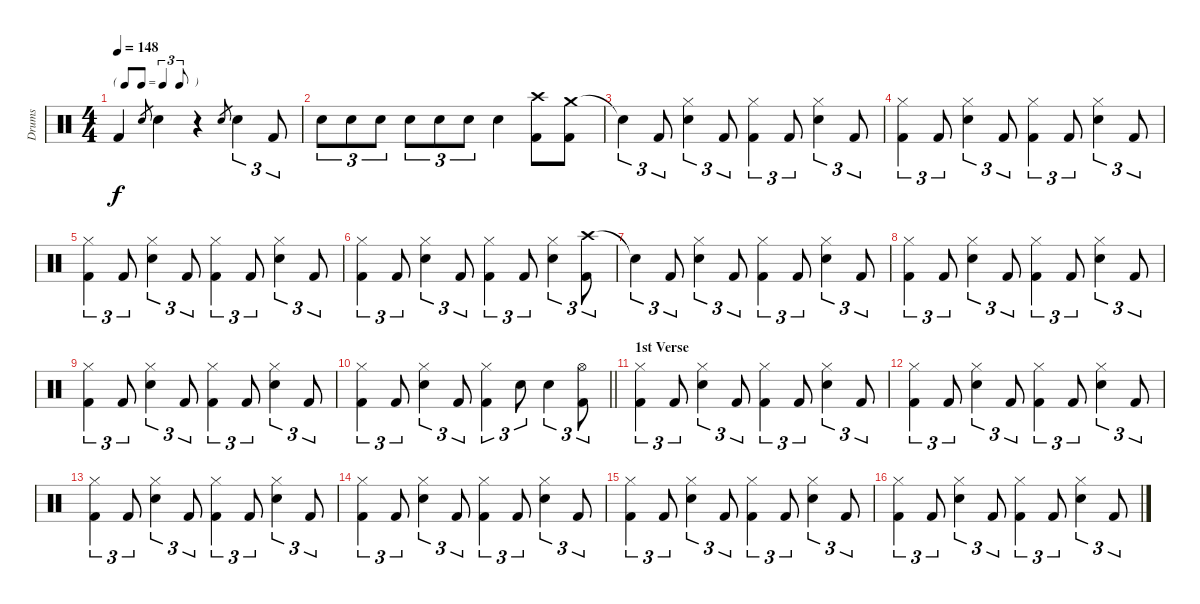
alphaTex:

\track ("Drums" "Drums") {instrument percussion}
\staff {score}
\articulation defaults
\ts (4 4)
\tf triplet8th
\tempo 148
\clef neutral
\ks c "Kick (hit) 2".4{dy f} "Snare (hit) 2".8{gr} "Snare (hit) 2".4
r.4 "Snare (hit) 2".8{gr} "Snare (hit) 2".4{tu (3 2)} "Kick (hit) 2".8{tu (3 2)} |
"Snare (hit) 2".8{tu (3 2)} "Snare (hit) 2".8{tu (3 2)} "Snare (hit) 2".8{tu (3 2)} "Snare (hit) 2".8{tu (3 2)} "Snare (hit) 2".8{tu (3 2)} "Snare (hit) 2".8{tu (3 2)} "Snare (hit) 2".4 ("Crash high (hit)" "Kick (hit) 2").8 ("Crash medium (hit)" "Kick (hit) 2").8 |
"Snare (hit)"{t}.4{tu (3 2)} "Kick (hit) 2".8{tu (3 2)} ("Hi-Hat (closed)" "Snare (hit) 2").4{tu (3 2)} "Kick (hit) 2".8{tu (3 2)} ("Hi-Hat (closed)" "Kick (hit) 2").4{tu (3 2)} "Kick (hit) 2".8{tu (3 2)} ("Hi-Hat (closed)" "Snare (hit) 2").4{tu (3 2)} "Kick (hit) 2".8{tu (3 2)} |
("Hi-Hat (closed)" "Kick (hit) 2").4{tu (3 2)} "Kick (hit) 2".8{tu (3 2)} ("Hi-Hat (closed)" "Snare (hit) 2").4{tu (3 2)} "Kick (hit) 2".8{tu (3 2)} ("Hi-Hat (closed)" "Kick (hit) 2").4{tu (3 2)} "Kick (hit) 2".8{tu (3 2)} ("Hi-Hat (closed)" "Snare (hit) 2").4{tu (3 2)} "Kick (hit) 2".8{tu (3 2)} |
("Hi-Hat (closed)" "Kick (hit) 2").4{tu (3 2)} "Kick (hit) 2".8{tu (3 2)} ("Hi-Hat (closed)" "Snare (hit) 2").4{tu (3 2)} "Kick (hit) 2".8{tu (3 2)} ("Hi-Hat (closed)" "Kick (hit) 2").4{tu (3 2)} "Kick (hit) 2".8{tu (3 2)} ("Hi-Hat (closed)" "Snare (hit) 2").4{tu (3 2)} "Kick (hit) 2".8{tu (3 2)} |
("Hi-Hat (closed)" "Kick (hit) 2").4{tu (3 2)} "Kick (hit) 2".8{tu (3 2)} ("Hi-Hat (closed)" "Snare (hit) 2").4{tu (3 2)} "Kick (hit) 2".8{tu (3 2)} ("Hi-Hat (closed)" "Kick (hit) 2").4{tu (3 2)} "Kick (hit) 2".8{tu (3 2)} ("Hi-Hat (closed)" "Snare (hit) 2").4{tu (3 2)} ("Crash high (hit)" "Kick (hit) 2").8{tu (3 2)} |
"Snare (hit)"{t}.4{tu (3 2)} "Kick (hit) 2".8{tu (3 2)} ("Hi-Hat (closed)" "Snare (hit) 2").4{tu (3 2)} "Kick (hit) 2".8{tu (3 2)} ("Hi-Hat (closed)" "Kick (hit) 2").4{tu (3 2)} "Kick (hit) 2".8{tu (3 2)} ("Hi-Hat (closed)" "Snare (hit) 2").4{tu (3 2)} "Kick (hit) 2".8{tu (3 2)} |
("Hi-Hat (closed)" "Kick (hit) 2").4{tu (3 2)} "Kick (hit) 2".8{tu (3 2)} ("Hi-Hat (closed)" "Snare (hit) 2").4{tu (3 2)} "Kick (hit) 2".8{tu (3 2)} ("Hi-Hat (closed)" "Kick (hit) 2").4{tu (3 2)} "Kick (hit) 2".8{tu (3 2)} ("Hi-Hat (closed)" "Snare (hit) 2").4{tu (3 2)} "Kick (hit) 2".8{tu (3 2)} |
("Hi-Hat (closed)" "Kick (hit) 2").4{tu (3 2)} "Kick (hit) 2".8{tu (3 2)} ("Hi-Hat (closed)" "Snare (hit) 2").4{tu (3 2)} "Kick (hit) 2".8{tu (3 2)} ("Hi-Hat (closed)" "Kick (hit) 2").4{tu (3 2)} "Kick (hit) 2".8{tu (3 2)} ("Hi-Hat (closed)" "Snare (hit) 2").4{tu (3 2)} "Kick (hit) 2".8{tu (3 2)} |
\barLineRight lightlight
("Hi-Hat (closed)" "Kick (hit) 2").4{tu (3 2)} "Kick (hit) 2".8{tu (3 2)} ("Hi-Hat (closed)" "Snare (hit) 2").4{tu (3 2)} "Kick (hit) 2".8{tu (3 2)} ("Hi-Hat (closed)" "Kick (hit) 2").4{tu (3 2)} "Snare (hit) 2".8{tu (3 2)} "Snare (hit) 2".4{tu (3 2)} ("Hi-Hat (open)" "Kick (hit) 2").8{tu (3 2)} |
\section ("" "1st Verse")
("Hi-Hat (closed)" "Kick (hit) 2").4{tu (3 2)} "Kick (hit) 2".8{tu (3 2)} ("Hi-Hat (closed)" "Snare (hit) 2").4{tu (3 2)} "Kick (hit) 2".8{tu (3 2)} ("Hi-Hat (closed)" "Kick (hit) 2").4{tu (3 2)} "Kick (hit) 2".8{tu (3 2)} ("Hi-Hat (closed)" "Snare (hit) 2").4{tu (3 2)} "Kick (hit) 2".8{tu (3 2)} |
("Hi-Hat (closed)" "Kick (hit) 2").4{tu (3 2)} "Kick (hit) 2".8{tu (3 2)} ("Hi-Hat (closed)" "Snare (hit) 2").4{tu (3 2)} "Kick (hit) 2".8{tu (3 2)} ("Hi-Hat (closed)" "Kick (hit) 2").4{tu (3 2)} "Kick (hit) 2".8{tu (3 2)} ("Hi-Hat (closed)" "Snare (hit) 2").4{tu (3 2)} "Kick (hit) 2".8{tu (3 2)} |
("Hi-Hat (closed)" "Kick (hit) 2").4{tu (3 2)} "Kick (hit) 2".8{tu (3 2)} ("Hi-Hat (closed)" "Snare (hit) 2").4{tu (3 2)} "Kick (hit) 2".8{tu (3 2)} ("Hi-Hat (closed)" "Kick (hit) 2").4{tu (3 2)} "Kick (hit) 2".8{tu (3 2)} ("Hi-Hat (closed)" "Snare (hit) 2").4{tu (3 2)} "Kick (hit) 2".8{tu (3 2)} |
("Hi-Hat (closed)" "Kick (hit) 2").4{tu (3 2)} "Kick (hit) 2".8{tu (3 2)} ("Hi-Hat (closed)" "Snare (hit) 2").4{tu (3 2)} "Kick (hit) 2".8{tu (3 2)} ("Hi-Hat (closed)" "Kick (hit) 2").4{tu (3 2)} "Kick (hit) 2".8{tu (3 2)} ("Hi-Hat (closed)" "Snare (hit) 2").4{tu (3 2)} "Kick (hit) 2".8{tu (3 2)} |
("Hi-Hat (closed)" "Kick (hit) 2").4{tu (3 2)} "Kick (hit) 2".8{tu (3 2)} ("Hi-Hat (closed)" "Snare (hit) 2").4{tu (3 2)} "Kick (hit) 2".8{tu (3 2)} ("Hi-Hat (closed)" "Kick (hit) 2").4{tu (3 2)} "Kick (hit) 2".8{tu (3 2)} ("Hi-Hat (closed)" "Snare (hit) 2").4{tu (3 2)} "Kick (hit) 2".8{tu (3 2)} |
("Hi-Hat (closed)" "Kick (hit) 2").4{tu (3 2)} "Kick (hit) 2".8{tu (3 2)} ("Hi-Hat (closed)" "Snare (hit) 2").4{tu (3 2)} "Kick (hit) 2".8{tu (3 2)} ("Hi-Hat (closed)" "Kick (hit) 2").4{tu (3 2)} "Kick (hit) 2".8{tu (3 2)} ("Hi-Hat (closed)" "Snare (hit) 2").4{tu (3 2)} "Kick (hit) 2".8{tu (3 2)}
